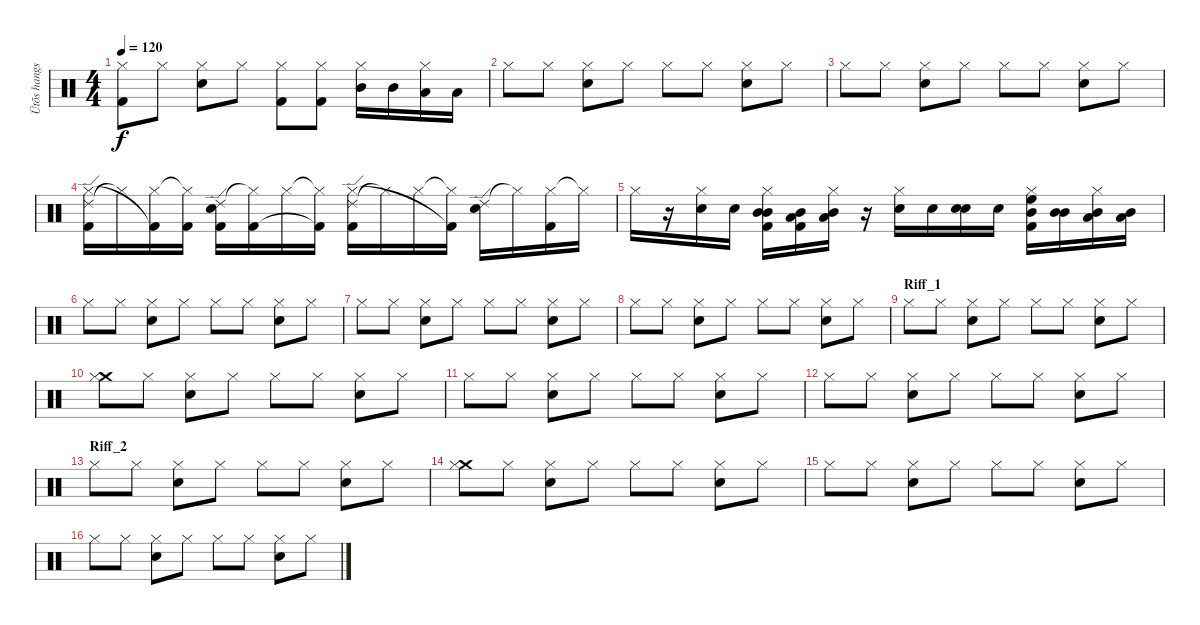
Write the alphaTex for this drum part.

\track ("Ütõs hangszer" "Ütõs hangs") {instrument percussion}
\staff {score}
\articulation defaults
\ts (4 4)
\tempo 120
\clef neutral
\ks c
("Hi-Hat (closed)" "Kick (hit) 2").8{dy f} "Hi-Hat (closed)".8 ("Hi-Hat (closed)" "Snare (hit) 2").8 "Hi-Hat (closed)".8 ("Hi-Hat (closed)" "Kick (hit) 2").8 ("Hi-Hat (closed)" "Kick (hit) 2").8 ("Hi-Hat (closed)" "Mid Tom (hit)").16 "Mid Tom (hit)".16 ("Hi-Hat (closed)" "Low Floor Tom (hit)").16 "Low Floor Tom (hit)".16 |
"Hi-Hat (closed)".8 "Hi-Hat (closed)".8 ("Hi-Hat (closed)" "Snare (hit) 2").8 "Hi-Hat (closed)".8 "Hi-Hat (closed)".8 "Hi-Hat (closed)".8 ("Hi-Hat (closed)" "Snare (hit) 2").8 "Hi-Hat (closed)".8 |
"Hi-Hat (closed)".8 "Hi-Hat (closed)".8 ("Hi-Hat (closed)" "Snare (hit) 2").8 "Hi-Hat (closed)".8 "Hi-Hat (closed)".8 "Hi-Hat (closed)".8 ("Hi-Hat (closed)" "Snare (hit) 2").8 "Hi-Hat (closed)".8 |
("Ride (edge) 2" "Hi-Hat (closed)" "Kick (hit) 2").16 "Hi-Hat (closed)"{t}.16 ("Hi-Hat (closed)" "Kick (hit) 2"{t}).16 ("Hi-Hat (closed)"{t} "Kick (hit) 2").16 ("Ride (edge) 2" "Snare (hit) 2" "Kick (hit) 2").16 ("Hi-Hat (closed)"{t} "Kick (hit) 2").16 "Hi-Hat (closed)".16 ("Hi-Hat (closed)"{t} "Kick (hit) 2"{t}).16 ("Ride (edge) 2" "Hi-Hat (closed)" "Kick (hit) 2").16 "Hi-Hat (closed)"{t}.16 "Hi-Hat (closed)".16 ("Hi-Hat (closed)"{t} "Kick (hit) 2"{t}).16 ("Ride (edge) 2" "Snare (hit) 2").16 "Hi-Hat (closed)"{t}.16 ("Hi-Hat (closed)" "Kick (hit) 2").16 "Hi-Hat (closed)"{t}.16 |
"Hi-Hat (closed)".16 r.16 ("Hi-Hat (closed)" "Snare (hit) 2").16 "Snare (hit) 2".16 ("Hi-Hat (closed)" "Mid Tom (hit)" "Mid Tom (hit)" "Kick (hit) 2").16 ("Low Tom (hit)" "Mid Tom (hit)" "Kick (hit) 2").16 ("Hi-Hat (closed)" "Low Floor Tom (hit)" "Mid Tom (hit)").16 r.16 ("Hi-Hat (closed)" "Snare (hit) 2").16 "Snare (hit) 2".16 ("Snare (hit)" "Snare (hit) 2").16 "Snare (hit) 2".16 ("Hi-Hat (closed)" "High Floor Tom (hit)" "Mid Tom (hit)" "Kick (hit) 2").16 ("Mid Tom (hit)" "Mid Tom (hit)").16 ("Hi-Hat (closed)" "Low Tom (hit)" "Mid Tom (hit)").16 ("Low Floor Tom (hit)" "Mid Tom (hit)").16 |
"Hi-Hat (closed)".8 "Hi-Hat (closed)".8 ("Hi-Hat (closed)" "Snare (hit) 2").8 "Hi-Hat (closed)".8 "Hi-Hat (closed)".8 "Hi-Hat (closed)".8 ("Hi-Hat (closed)" "Snare (hit) 2").8 "Hi-Hat (closed)".8 |
"Hi-Hat (closed)".8 "Hi-Hat (closed)".8 ("Hi-Hat (closed)" "Snare (hit) 2").8 "Hi-Hat (closed)".8 "Hi-Hat (closed)".8 "Hi-Hat (closed)".8 ("Hi-Hat (closed)" "Snare (hit) 2").8 "Hi-Hat (closed)".8 |
"Hi-Hat (closed)".8 "Hi-Hat (closed)".8 ("Hi-Hat (closed)" "Snare (hit) 2").8 "Hi-Hat (closed)".8 "Hi-Hat (closed)".8 "Hi-Hat (closed)".8 ("Hi-Hat (closed)" "Snare (hit) 2").8 "Hi-Hat (closed)".8 |
\section ("" "Riff_1")
"Hi-Hat (closed)".8 "Hi-Hat (closed)".8 ("Hi-Hat (closed)" "Snare (hit) 2").8 "Hi-Hat (closed)".8 "Hi-Hat (closed)".8 "Hi-Hat (closed)".8 ("Hi-Hat (closed)" "Snare (hit) 2").8 "Hi-Hat (closed)".8 |
("Crash medium (hit)" "Hi-Hat (closed)").8 "Hi-Hat (closed)".8 ("Hi-Hat (closed)" "Snare (hit) 2").8 "Hi-Hat (closed)".8 "Hi-Hat (closed)".8 "Hi-Hat (closed)".8 ("Hi-Hat (closed)" "Snare (hit) 2").8 "Hi-Hat (closed)".8 |
"Hi-Hat (closed)".8 "Hi-Hat (closed)".8 ("Hi-Hat (closed)" "Snare (hit) 2").8 "Hi-Hat (closed)".8 "Hi-Hat (closed)".8 "Hi-Hat (closed)".8 ("Hi-Hat (closed)" "Snare (hit) 2").8 "Hi-Hat (closed)".8 |
"Hi-Hat (closed)".8 "Hi-Hat (closed)".8 ("Hi-Hat (closed)" "Snare (hit) 2").8 "Hi-Hat (closed)".8 "Hi-Hat (closed)".8 "Hi-Hat (closed)".8 ("Hi-Hat (closed)" "Snare (hit) 2").8 "Hi-Hat (closed)".8 |
\section ("" "Riff_2")
"Hi-Hat (closed)".8 "Hi-Hat (closed)".8 ("Hi-Hat (closed)" "Snare (hit) 2").8 "Hi-Hat (closed)".8 "Hi-Hat (closed)".8 "Hi-Hat (closed)".8 ("Hi-Hat (closed)" "Snare (hit) 2").8 "Hi-Hat (closed)".8 |
("Crash medium (hit)" "Hi-Hat (closed)").8 "Hi-Hat (closed)".8 ("Hi-Hat (closed)" "Snare (hit) 2").8 "Hi-Hat (closed)".8 "Hi-Hat (closed)".8 "Hi-Hat (closed)".8 ("Hi-Hat (closed)" "Snare (hit) 2").8 "Hi-Hat (closed)".8 |
"Hi-Hat (closed)".8 "Hi-Hat (closed)".8 ("Hi-Hat (closed)" "Snare (hit) 2").8 "Hi-Hat (closed)".8 "Hi-Hat (closed)".8 "Hi-Hat (closed)".8 ("Hi-Hat (closed)" "Snare (hit) 2").8 "Hi-Hat (closed)".8 |
"Hi-Hat (closed)".8 "Hi-Hat (closed)".8 ("Hi-Hat (closed)" "Snare (hit) 2").8 "Hi-Hat (closed)".8 "Hi-Hat (closed)".8 "Hi-Hat (closed)".8 ("Hi-Hat (closed)" "Snare (hit) 2").8 "Hi-Hat (closed)".8
